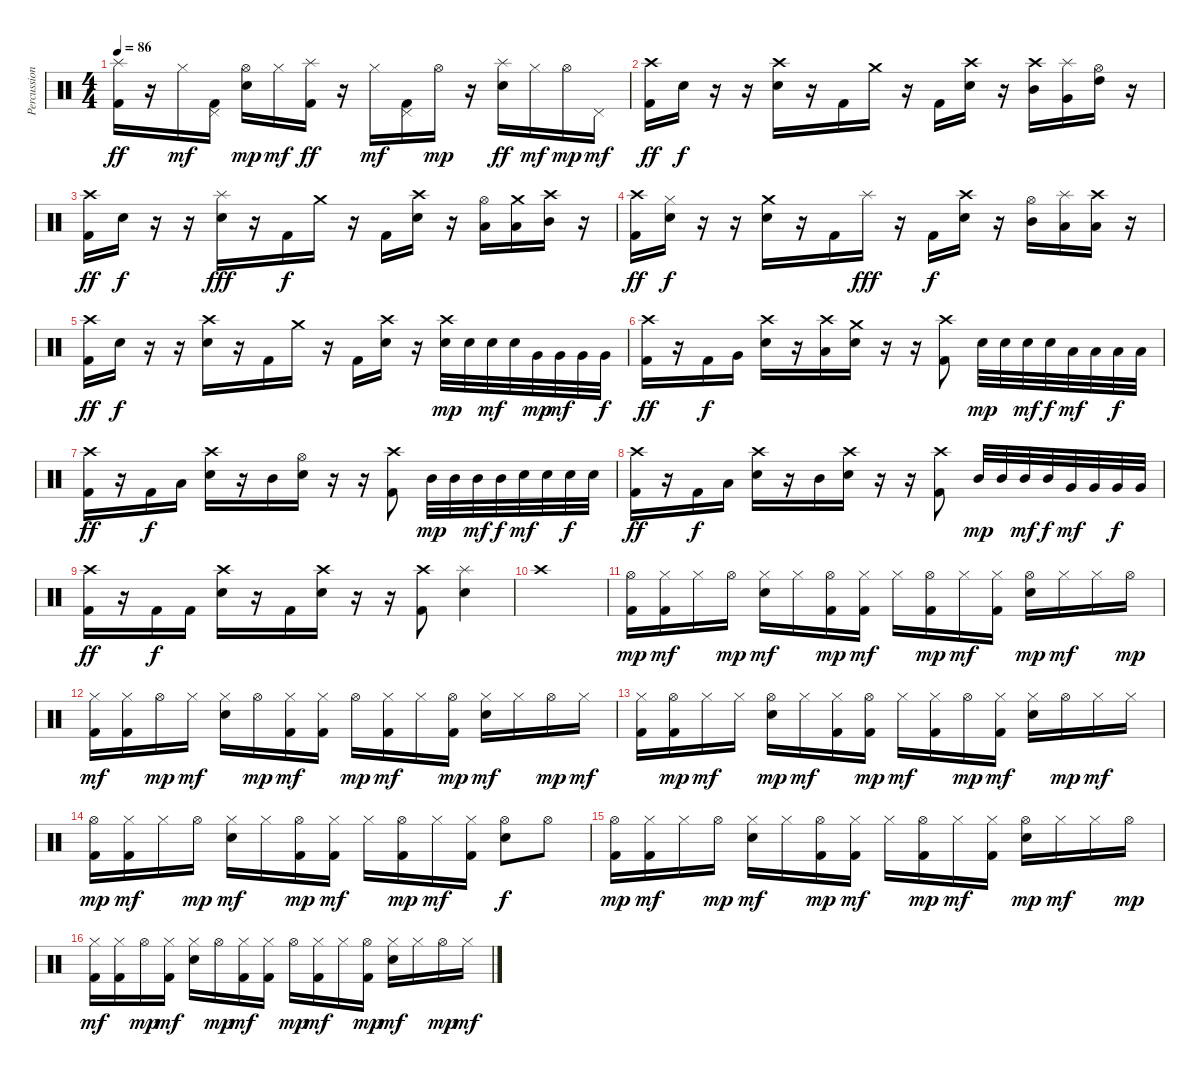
\track ("Percussion" "Percussion") {instrument percussion}
\staff {score}
\articulation defaults
\ts (4 4)
\tempo 86
\clef neutral
\ks c
("Splash (hit)" "Kick (hit) 2").16{dy ff} r.16 "Hi-Hat (closed)".16{dy mf} ("Pedal Hi-Hat (hit)" "Kick (hit) 2").16 ("Hi-Hat (open)" "Electric Snare (hit)").16{dy mp} "Hi-Hat (closed)".16{dy mf} ("Splash (hit)" "Kick (hit) 2").16{dy ff} r.16 "Hi-Hat (closed)".16{dy mf} ("Pedal Hi-Hat (hit)" "Kick (hit) 2").16 "Hi-Hat (open)".16{dy mp} r.16 ("Splash (hit)" "Electric Snare (hit)").16{dy ff} "Hi-Hat (closed)".16{dy mf} "Hi-Hat (open)".16{dy mp} "Pedal Hi-Hat (hit)".16{dy mf} |
("Crash high (hit)" "Kick (hit) 2").16{dy ff volume 14} "Electric Snare (hit)".16{dy f} r.16 r.16 ("Crash high (hit)" "Electric Snare (hit)").16 r.16 "Kick (hit) 2".16 "Crash medium (hit)".16 r.16 "Kick (hit) 2".16 ("Crash high (hit)" "Electric Snare (hit)").16 r.16 ("Crash high (hit)" "Mid Tom (hit)").16 ("Splash (hit)" "Very Low Tom (hit)").16 ("Hi-Hat (open)" "High Tom (hit)").16 r.16 |
("Crash high (hit)" "Kick (hit) 2").16{dy ff} "Electric Snare (hit)".16{dy f} r.16 r.16 ("Splash (hit)" "Electric Snare (hit)").16{dy fff} r.16 "Kick (hit) 2".16{dy f} "Crash medium (hit)".16 r.16 "Kick (hit) 2".16 ("Crash high (hit)" "Electric Snare (hit)").16 r.16 ("Hi-Hat (open)" "Low Tom (hit)").16 ("Crash medium (hit)" "Low Floor Tom (hit)").16 ("Crash high (hit)" "Mid Tom (hit)").16 r.16 |
("Crash high (hit)" "Kick (hit) 2").16{dy ff} ("Hi-Hat (closed)" "Electric Snare (hit)").16{dy f} r.16 r.16 ("Crash medium (hit)" "Electric Snare (hit)").16 r.16 "Kick (hit) 2".16 "Splash (hit)".16{dy fff} r.16 "Kick (hit) 2".16{dy f} ("Crash high (hit)" "Electric Snare (hit)").16 r.16 ("Hi-Hat (open)" "Mid Tom (hit)").16 ("Splash (hit)" "Low Tom (hit)").16 ("Crash high (hit)" "Low Floor Tom (hit)").16 r.16 |
("Crash high (hit)" "Kick (hit) 2").16{dy ff} "Electric Snare (hit)".16{dy f} r.16 r.16 ("Crash high (hit)" "Electric Snare (hit)").16 r.16 "Kick (hit) 2".16 "Crash medium (hit)".16 r.16 "Kick (hit) 2".16 ("Crash high (hit)" "Electric Snare (hit)").16 r.16 ("Crash high (hit)" "Electric Snare (hit)").32{dy mp} "Electric Snare (hit)".32 "Electric Snare (hit)".32{dy mf} "Electric Snare (hit)".32 "Very Low Tom (hit)".32{dy mp} "Very Low Tom (hit)".32{dy mf} "Very Low Tom (hit)".32 "Very Low Tom (hit)".32{dy f} |
("Crash high (hit)" "Kick (hit) 2").16{dy ff} r.16 "Kick (hit) 2".16{dy f} "Very Low Tom (hit)".16 ("Crash high (hit)" "Electric Snare (hit)").16 r.16 ("Crash high (hit)" "Low Tom (hit)").16 ("Crash medium (hit)" "Electric Snare (hit)").16 r.16 r.16 ("Crash high (hit)" "Kick (hit) 2").8 "Electric Snare (hit)".32{dy mp} "Electric Snare (hit)".32 "Electric Snare (hit)".32{dy mf} "Electric Snare (hit)".32{dy f} "Low Tom (hit)".32{dy mf} "Low Tom (hit)".32 "Low Tom (hit)".32{dy f} "Low Tom (hit)".32 |
("Crash high (hit)" "Kick (hit) 2").16{dy ff} r.16 "Kick (hit) 2".16{dy f} "Low Tom (hit)".16 ("Crash high (hit)" "Electric Snare (hit)").16 r.16 "Mid Tom (hit)".16 ("Hi-Hat (open)" "Electric Snare (hit)").16 r.16 r.16 ("Crash high (hit)" "Kick (hit) 2").8 "Mid Tom (hit)".32{dy mp} "Mid Tom (hit)".32 "Mid Tom (hit)".32{dy mf} "Mid Tom (hit)".32{dy f} "Electric Snare (hit)".32{dy mf} "Electric Snare (hit)".32 "Electric Snare (hit)".32{dy f} "Electric Snare (hit)".32 |
("Crash high (hit)" "Kick (hit) 2").16{dy ff} r.16 "Kick (hit) 2".16{dy f} "Low Floor Tom (hit)".16 ("Crash high (hit)" "Electric Snare (hit)").16 r.16 "Mid Tom (hit)".16 ("Crash high (hit)" "Electric Snare (hit)").16 r.16 r.16 ("Crash high (hit)" "Kick (hit) 2").8 "Mid Tom (hit)".32{dy mp} "Mid Tom (hit)".32 "Mid Tom (hit)".32{dy mf} "Mid Tom (hit)".32{dy f} "Very Low Tom (hit)".32{dy mf} "Very Low Tom (hit)".32 "Very Low Tom (hit)".32{dy f} "Very Low Tom (hit)".32 |
("Crash high (hit)" "Kick (hit) 2").16{dy ff} r.16 "Kick (hit) 2".16{dy f} "Kick (hit) 2".16 ("Crash high (hit)" "Electric Snare (hit)").16 r.16 "Kick (hit) 2".16 ("Crash high (hit)" "Electric Snare (hit)").16 r.16 r.16 ("Crash high (hit)" "Kick (hit) 2").8 ("Splash (hit)" "Electric Snare (hit)").4 |
"Crash high (hit)".1 |
("Hi-Hat (open)" "Kick (hit) 2").16{dy mp} ("Hi-Hat (closed)" "Kick (hit) 2").16{dy mf} "Hi-Hat (closed)".16 "Hi-Hat (open)".16{dy mp} ("Hi-Hat (closed)" "Electric Snare (hit)").16{dy mf} "Hi-Hat (closed)".16 ("Hi-Hat (open)" "Kick (hit) 2").16{dy mp} ("Hi-Hat (closed)" "Kick (hit) 2").16{dy mf} "Hi-Hat (closed)".16 ("Hi-Hat (open)" "Kick (hit) 2").16{dy mp} "Hi-Hat (closed)".16{dy mf} ("Hi-Hat (closed)" "Kick (hit) 2").16 ("Hi-Hat (open)" "Electric Snare (hit)").16{dy mp} "Hi-Hat (closed)".16{dy mf} "Hi-Hat (closed)".16 "Hi-Hat (open)".16{dy mp} |
("Hi-Hat (closed)" "Kick (hit) 2").16{dy mf} ("Hi-Hat (closed)" "Kick (hit) 2").16 "Hi-Hat (open)".16{dy mp} "Hi-Hat (closed)".16{dy mf} ("Hi-Hat (closed)" "Electric Snare (hit)").16 "Hi-Hat (open)".16{dy mp} ("Hi-Hat (closed)" "Kick (hit) 2").16{dy mf} ("Hi-Hat (closed)" "Kick (hit) 2").16 "Hi-Hat (open)".16{dy mp} ("Hi-Hat (closed)" "Kick (hit) 2").16{dy mf} "Hi-Hat (closed)".16 ("Hi-Hat (open)" "Kick (hit) 2").16{dy mp} ("Hi-Hat (closed)" "Electric Snare (hit)").16{dy mf} "Hi-Hat (closed)".16 "Hi-Hat (open)".16{dy mp} "Hi-Hat (closed)".16{dy mf} |
("Hi-Hat (closed)" "Kick (hit) 2").16 ("Hi-Hat (open)" "Kick (hit) 2").16{dy mp} "Hi-Hat (closed)".16{dy mf} "Hi-Hat (closed)".16 ("Hi-Hat (open)" "Electric Snare (hit)").16{dy mp} "Hi-Hat (closed)".16{dy mf} ("Hi-Hat (closed)" "Kick (hit) 2").16 ("Hi-Hat (open)" "Kick (hit) 2").16{dy mp} "Hi-Hat (closed)".16{dy mf} ("Hi-Hat (closed)" "Kick (hit) 2").16 "Hi-Hat (open)".16{dy mp} ("Hi-Hat (closed)" "Kick (hit) 2").16{dy mf} ("Hi-Hat (closed)" "Electric Snare (hit)").16 "Hi-Hat (open)".16{dy mp} "Hi-Hat (closed)".16{dy mf} "Hi-Hat (closed)".16 |
("Hi-Hat (open)" "Kick (hit) 2").16{dy mp} ("Hi-Hat (closed)" "Kick (hit) 2").16{dy mf} "Hi-Hat (closed)".16 "Hi-Hat (open)".16{dy mp} ("Hi-Hat (closed)" "Electric Snare (hit)").16{dy mf} "Hi-Hat (closed)".16 ("Hi-Hat (open)" "Kick (hit) 2").16{dy mp} ("Hi-Hat (closed)" "Kick (hit) 2").16{dy mf} "Hi-Hat (closed)".16 ("Hi-Hat (open)" "Kick (hit) 2").16{dy mp} "Hi-Hat (closed)".16{dy mf} ("Hi-Hat (closed)" "Kick (hit) 2").16 ("Hi-Hat (open)" "Electric Snare (hit)").8{dy f} "Hi-Hat (open)".8 |
("Hi-Hat (open)" "Kick (hit) 2").16{dy mp} ("Hi-Hat (closed)" "Kick (hit) 2").16{dy mf} "Hi-Hat (closed)".16 "Hi-Hat (open)".16{dy mp} ("Hi-Hat (closed)" "Electric Snare (hit)").16{dy mf} "Hi-Hat (closed)".16 ("Hi-Hat (open)" "Kick (hit) 2").16{dy mp} ("Hi-Hat (closed)" "Kick (hit) 2").16{dy mf} "Hi-Hat (closed)".16 ("Hi-Hat (open)" "Kick (hit) 2").16{dy mp} "Hi-Hat (closed)".16{dy mf} ("Hi-Hat (closed)" "Kick (hit) 2").16 ("Hi-Hat (open)" "Electric Snare (hit)").16{dy mp} "Hi-Hat (closed)".16{dy mf} "Hi-Hat (closed)".16 "Hi-Hat (open)".16{dy mp} |
("Hi-Hat (closed)" "Kick (hit) 2").16{dy mf} ("Hi-Hat (closed)" "Kick (hit) 2").16 "Hi-Hat (open)".16{dy mp} ("Hi-Hat (closed)" "Kick (hit) 2").16{dy mf} ("Hi-Hat (closed)" "Electric Snare (hit)").16 "Hi-Hat (open)".16{dy mp} ("Hi-Hat (closed)" "Kick (hit) 2").16{dy mf} ("Hi-Hat (closed)" "Kick (hit) 2").16 "Hi-Hat (open)".16{dy mp} ("Hi-Hat (closed)" "Kick (hit) 2").16{dy mf} "Hi-Hat (closed)".16 ("Hi-Hat (open)" "Kick (hit) 2").16{dy mp} ("Hi-Hat (closed)" "Electric Snare (hit)").16{dy mf} "Hi-Hat (closed)".16 "Hi-Hat (open)".16{dy mp} "Hi-Hat (closed)".16{dy mf}
